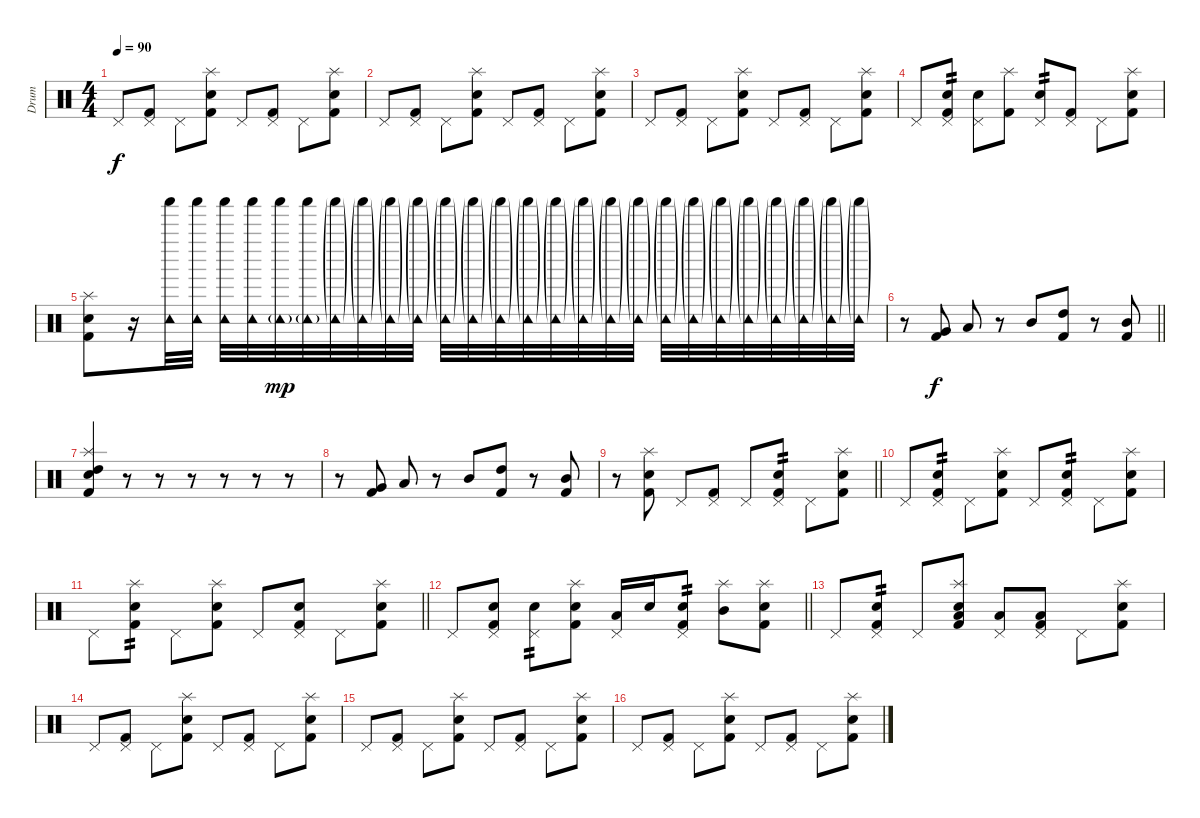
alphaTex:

\track ("Drum" "Drum") {instrument percussion}
\staff {score}
\articulation defaults
\ts (4 4)
\tempo 90
\clef neutral
\ks c "Pedal Hi-Hat (hit)".8{dy f}
("Kick (hit) 2" "Pedal Hi-Hat (hit)").8 "Pedal Hi-Hat (hit)".8 ("Electric Snare (hit)" "Kick (hit) 2" "Splash (hit)").8 "Pedal Hi-Hat (hit)".8 ("Kick (hit) 2" "Pedal Hi-Hat (hit)").8 "Pedal Hi-Hat (hit)".8 ("Electric Snare (hit)" "Kick (hit) 2" "Splash (hit)").8 |
"Pedal Hi-Hat (hit)".8 ("Kick (hit) 2" "Pedal Hi-Hat (hit)").8 "Pedal Hi-Hat (hit)".8 ("Electric Snare (hit)" "Kick (hit) 2" "Splash (hit)").8 "Pedal Hi-Hat (hit)".8 ("Kick (hit) 2" "Pedal Hi-Hat (hit)").8 "Pedal Hi-Hat (hit)".8 ("Electric Snare (hit)" "Kick (hit) 2" "Splash (hit)").8 |
"Pedal Hi-Hat (hit)".8 ("Kick (hit) 2" "Pedal Hi-Hat (hit)").8 "Pedal Hi-Hat (hit)".8 ("Electric Snare (hit)" "Kick (hit) 2" "Splash (hit)").8 "Pedal Hi-Hat (hit)".8 ("Kick (hit) 2" "Pedal Hi-Hat (hit)").8 "Pedal Hi-Hat (hit)".8 ("Electric Snare (hit)" "Kick (hit) 2" "Splash (hit)").8 |
"Pedal Hi-Hat (hit)".8 ("Electric Snare (hit)" "Kick (hit) 2" "Pedal Hi-Hat (hit)").8{tp 2} ("Electric Snare (hit)" "Pedal Hi-Hat (hit)").8 ("Kick (hit) 2" "Splash (hit)").8 ("Electric Snare (hit)" "Pedal Hi-Hat (hit)").8{tp 2} ("Kick (hit) 2" "Pedal Hi-Hat (hit)").8 "Pedal Hi-Hat (hit)".8 ("Electric Snare (hit)" "Kick (hit) 2" "Splash (hit)").8 |
("Electric Snare (hit)" "Kick (hit) 2" "Splash (hit)").8 r.16 ("Shaker (hit)" "Tambourine (hit)").32 ("Shaker (hit)" "Tambourine (hit)").32 ("Shaker (hit)" "Tambourine (hit)").32 ("Shaker (hit)" "Tambourine (hit)").32 ("Shaker (hit)" "Tambourine (hit)"{g}).32{dy mp} ("Shaker (hit)" "Tambourine (hit)"{g}).32 ("Shaker (hit)"{g} "Tambourine (hit)"{g}).32 ("Shaker (hit)"{g} "Tambourine (hit)"{g}).32 ("Shaker (hit)"{g} "Tambourine (hit)"{g}).32 ("Shaker (hit)"{g} "Tambourine (hit)"{g}).32 ("Shaker (hit)"{g} "Tambourine (hit)"{g}).32 ("Shaker (hit)"{g} "Tambourine (hit)"{g}).32 ("Shaker (hit)"{g} "Tambourine (hit)"{g}).32 ("Shaker (hit)"{g} "Tambourine (hit)"{g}).32 ("Shaker (hit)"{g} "Tambourine (hit)"{g}).32 ("Shaker (hit)"{g} "Tambourine (hit)"{g}).32 ("Shaker (hit)"{g} "Tambourine (hit)"{g}).32 ("Shaker (hit)"{g} "Tambourine (hit)"{g}).32 ("Shaker (hit)"{g} "Tambourine (hit)"{g}).32 ("Shaker (hit)"{g} "Tambourine (hit)"{g}).32 ("Shaker (hit)"{g} "Tambourine (hit)"{g}).32 ("Shaker (hit)"{g} "Tambourine (hit)"{g}).32 ("Shaker (hit)"{g} "Tambourine (hit)"{g}).32 ("Shaker (hit)"{g} "Tambourine (hit)"{g}).32 ("Shaker (hit)"{g} "Tambourine (hit)"{g}).32 ("Shaker (hit)"{g} "Tambourine (hit)"{g}).32 |
\barLineRight lightlight
r.8 ("Very Low Tom (hit)" "Kick (hit) 2").8{dy f} "Low Tom (hit)".8 r.8 "Mid Tom (hit)".8 ("High Tom (hit)" "Kick (hit) 2").8 r.8 ("Mid Tom (hit)" "Kick (hit) 2").8 |
("Electric Snare (hit)" "High Tom (hit)" "Kick (hit) 2" "Splash (hit)").4 r.8 r.8 r.8 r.8 r.8 r.8 |
r.8 ("Very Low Tom (hit)" "Kick (hit) 2").8 "Low Tom (hit)".8 r.8 "Mid Tom (hit)".8 ("High Tom (hit)" "Kick (hit) 2").8 r.8 ("Mid Tom (hit)" "Kick (hit) 2").8 |
\barLineRight lightlight
r.8 ("Electric Snare (hit)" "Kick (hit) 2" "Splash (hit)").8 "Pedal Hi-Hat (hit)".8 ("Kick (hit) 2" "Pedal Hi-Hat (hit)").8 "Pedal Hi-Hat (hit)".8 ("Electric Snare (hit)" "Kick (hit) 2" "Pedal Hi-Hat (hit)").8{tp 2} "Pedal Hi-Hat (hit)".8 ("Electric Snare (hit)" "Kick (hit) 2" "Splash (hit)").8 |
"Pedal Hi-Hat (hit)".8 ("Electric Snare (hit)" "Kick (hit) 2" "Pedal Hi-Hat (hit)").8{tp 2} "Pedal Hi-Hat (hit)".8 ("Electric Snare (hit)" "Kick (hit) 2" "Splash (hit)").8 "Pedal Hi-Hat (hit)".8 ("Electric Snare (hit)" "Kick (hit) 2" "Pedal Hi-Hat (hit)").8{tp 2} "Pedal Hi-Hat (hit)".8 ("Electric Snare (hit)" "Kick (hit) 2" "Splash (hit)").8 |
\barLineRight lightlight "Pedal Hi-Hat (hit)".8
("Electric Snare (hit)" "Kick (hit) 2" "Splash (hit)").8{tp 2} "Pedal Hi-Hat (hit)".8 ("Electric Snare (hit)" "Kick (hit) 2" "Splash (hit)").8 "Pedal Hi-Hat (hit)".8 ("Electric Snare (hit)" "Kick (hit) 2" "Pedal Hi-Hat (hit)").8 "Pedal Hi-Hat (hit)".8 ("Electric Snare (hit)" "Kick (hit) 2" "Splash (hit)").8 |
\barLineRight lightlight "Pedal Hi-Hat (hit)".8
("Electric Snare (hit)" "Kick (hit) 2" "Pedal Hi-Hat (hit)").8 ("Electric Snare (hit)" "Pedal Hi-Hat (hit)").8{tp 2} ("Electric Snare (hit)" "Kick (hit) 2" "Splash (hit)").8 ("Low Tom (hit)" "Pedal Hi-Hat (hit)").16 "Electric Snare (hit)".16 ("Electric Snare (hit)" "Kick (hit) 2" "Pedal Hi-Hat (hit)").8{tp 2} ("Mid Tom (hit)" "Splash (hit)").8 ("Electric Snare (hit)" "Kick (hit) 2" "Splash (hit)").8 |
"Pedal Hi-Hat (hit)".8 ("Electric Snare (hit)" "Kick (hit) 2" "Pedal Hi-Hat (hit)").8{tp 2} "Pedal Hi-Hat (hit)".8 ("Electric Snare (hit)" "Low Tom (hit)" "Kick (hit) 2" "Splash (hit)").8 ("Low Tom (hit)" "Pedal Hi-Hat (hit)").8 ("Low Tom (hit)" "Kick (hit) 2" "Pedal Hi-Hat (hit)").8 "Pedal Hi-Hat (hit)".8 ("Electric Snare (hit)" "Kick (hit) 2" "Splash (hit)").8 |
"Pedal Hi-Hat (hit)".8 ("Kick (hit) 2" "Pedal Hi-Hat (hit)").8 "Pedal Hi-Hat (hit)".8 ("Electric Snare (hit)" "Kick (hit) 2" "Splash (hit)").8 "Pedal Hi-Hat (hit)".8 ("Kick (hit) 2" "Pedal Hi-Hat (hit)").8 "Pedal Hi-Hat (hit)".8 ("Electric Snare (hit)" "Kick (hit) 2" "Splash (hit)").8 |
"Pedal Hi-Hat (hit)".8 ("Kick (hit) 2" "Pedal Hi-Hat (hit)").8 "Pedal Hi-Hat (hit)".8 ("Electric Snare (hit)" "Kick (hit) 2" "Splash (hit)").8 "Pedal Hi-Hat (hit)".8 ("Kick (hit) 2" "Pedal Hi-Hat (hit)").8 "Pedal Hi-Hat (hit)".8 ("Electric Snare (hit)" "Kick (hit) 2" "Splash (hit)").8 |
"Pedal Hi-Hat (hit)".8 ("Kick (hit) 2" "Pedal Hi-Hat (hit)").8 "Pedal Hi-Hat (hit)".8 ("Electric Snare (hit)" "Kick (hit) 2" "Splash (hit)").8 "Pedal Hi-Hat (hit)".8 ("Kick (hit) 2" "Pedal Hi-Hat (hit)").8 "Pedal Hi-Hat (hit)".8 ("Electric Snare (hit)" "Kick (hit) 2" "Splash (hit)").8
